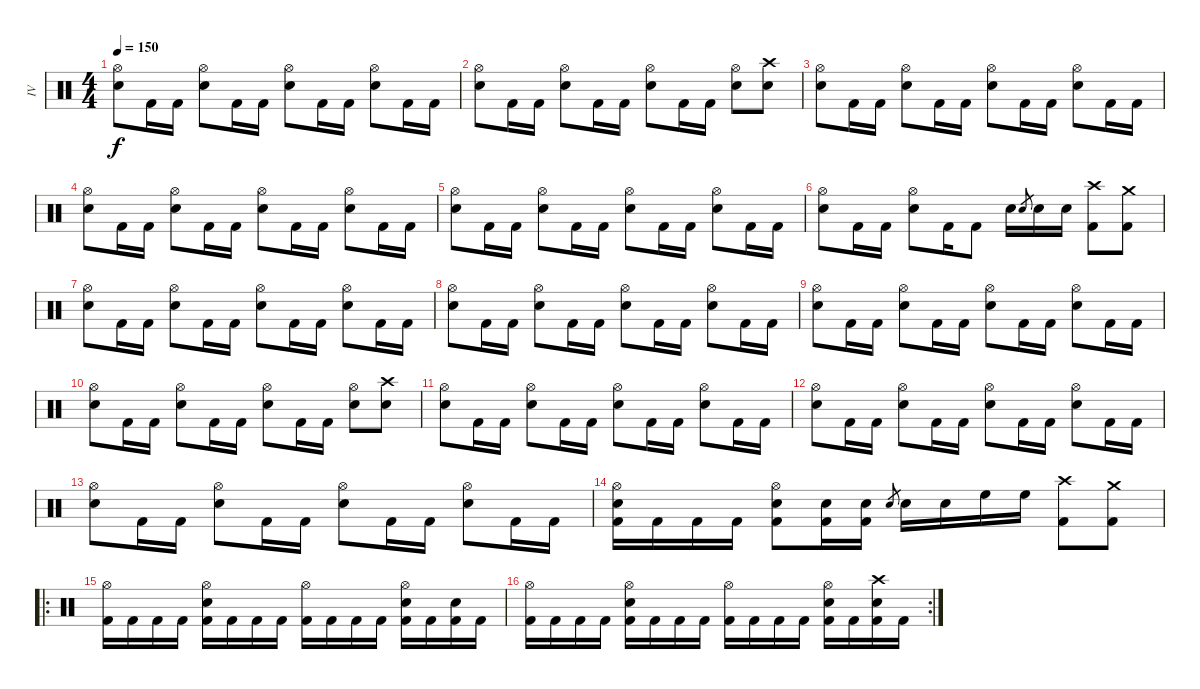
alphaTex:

\track ("IV" "IV") {instrument percussion}
\staff {score}
\articulation defaults
\ts (4 4)
\tempo 150
\clef neutral
\ks c
("Hi-Hat (open)" "Snare (hit) 2").8{dy f} "Kick (hit) 2".16 "Kick (hit) 2".16 ("Hi-Hat (open)" "Snare (hit) 2").8 "Kick (hit) 2".16 "Kick (hit) 2".16 ("Hi-Hat (open)" "Snare (hit) 2").8 "Kick (hit) 2".16 "Kick (hit) 2".16 ("Hi-Hat (open)" "Snare (hit) 2").8 "Kick (hit) 2".16 "Kick (hit) 2".16 |
("Hi-Hat (open)" "Snare (hit) 2").8 "Kick (hit) 2".16 "Kick (hit) 2".16 ("Hi-Hat (open)" "Snare (hit) 2").8 "Kick (hit) 2".16 "Kick (hit) 2".16 ("Hi-Hat (open)" "Snare (hit) 2").8 "Kick (hit) 2".16 "Kick (hit) 2".16 ("Hi-Hat (open)" "Snare (hit) 2").8 ("Crash high (hit)" "Snare (hit) 2").8 |
("Hi-Hat (open)" "Snare (hit) 2").8 "Kick (hit) 2".16 "Kick (hit) 2".16 ("Hi-Hat (open)" "Snare (hit) 2").8 "Kick (hit) 2".16 "Kick (hit) 2".16 ("Hi-Hat (open)" "Snare (hit) 2").8 "Kick (hit) 2".16 "Kick (hit) 2".16 ("Hi-Hat (open)" "Snare (hit) 2").8 "Kick (hit) 2".16 "Kick (hit) 2".16 |
("Hi-Hat (open)" "Snare (hit) 2").8 "Kick (hit) 2".16 "Kick (hit) 2".16 ("Hi-Hat (open)" "Snare (hit) 2").8 "Kick (hit) 2".16 "Kick (hit) 2".16 ("Hi-Hat (open)" "Snare (hit) 2").8 "Kick (hit) 2".16 "Kick (hit) 2".16 ("Hi-Hat (open)" "Snare (hit) 2").8 "Kick (hit) 2".16 "Kick (hit) 2".16 |
("Hi-Hat (open)" "Snare (hit) 2").8 "Kick (hit) 2".16 "Kick (hit) 2".16 ("Hi-Hat (open)" "Snare (hit) 2").8 "Kick (hit) 2".16 "Kick (hit) 2".16 ("Hi-Hat (open)" "Snare (hit) 2").8 "Kick (hit) 2".16 "Kick (hit) 2".16 ("Hi-Hat (open)" "Snare (hit) 2").8 "Kick (hit) 2".16 "Kick (hit) 2".16 |
("Hi-Hat (open)" "Snare (hit) 2").8 "Kick (hit) 2".16 "Kick (hit) 2".16 ("Hi-Hat (open)" "Snare (hit) 2").8 "Kick (hit) 2".16 "Kick (hit) 2".8 "Snare (hit) 2".16 "Snare (hit) 2".8{gr} "Snare (hit) 2".16 "Snare (hit) 2".16 ("Crash high (hit)" "Kick (hit) 2").8 ("Crash medium (hit)" "Kick (hit) 2").8 |
("Hi-Hat (open)" "Snare (hit) 2").8 "Kick (hit) 2".16 "Kick (hit) 2".16 ("Hi-Hat (open)" "Snare (hit) 2").8 "Kick (hit) 2".16 "Kick (hit) 2".16 ("Hi-Hat (open)" "Snare (hit) 2").8 "Kick (hit) 2".16 "Kick (hit) 2".16 ("Hi-Hat (open)" "Snare (hit) 2").8 "Kick (hit) 2".16 "Kick (hit) 2".16 |
("Hi-Hat (open)" "Snare (hit) 2").8 "Kick (hit) 2".16 "Kick (hit) 2".16 ("Hi-Hat (open)" "Snare (hit) 2").8 "Kick (hit) 2".16 "Kick (hit) 2".16 ("Hi-Hat (open)" "Snare (hit) 2").8 "Kick (hit) 2".16 "Kick (hit) 2".16 ("Hi-Hat (open)" "Snare (hit) 2").8 "Kick (hit) 2".16 "Kick (hit) 2".16 |
("Hi-Hat (open)" "Snare (hit) 2").8 "Kick (hit) 2".16 "Kick (hit) 2".16 ("Hi-Hat (open)" "Snare (hit) 2").8 "Kick (hit) 2".16 "Kick (hit) 2".16 ("Hi-Hat (open)" "Snare (hit) 2").8 "Kick (hit) 2".16 "Kick (hit) 2".16 ("Hi-Hat (open)" "Snare (hit) 2").8 "Kick (hit) 2".16 "Kick (hit) 2".16 |
("Hi-Hat (open)" "Snare (hit) 2").8 "Kick (hit) 2".16 "Kick (hit) 2".16 ("Hi-Hat (open)" "Snare (hit) 2").8 "Kick (hit) 2".16 "Kick (hit) 2".16 ("Hi-Hat (open)" "Snare (hit) 2").8 "Kick (hit) 2".16 "Kick (hit) 2".16 ("Hi-Hat (open)" "Snare (hit) 2").8 ("Crash high (hit)" "Snare (hit) 2").8 |
("Hi-Hat (open)" "Snare (hit) 2").8 "Kick (hit) 2".16 "Kick (hit) 2".16 ("Hi-Hat (open)" "Snare (hit) 2").8 "Kick (hit) 2".16 "Kick (hit) 2".16 ("Hi-Hat (open)" "Snare (hit) 2").8 "Kick (hit) 2".16 "Kick (hit) 2".16 ("Hi-Hat (open)" "Snare (hit) 2").8 "Kick (hit) 2".16 "Kick (hit) 2".16 |
("Hi-Hat (open)" "Snare (hit) 2").8 "Kick (hit) 2".16 "Kick (hit) 2".16 ("Hi-Hat (open)" "Snare (hit) 2").8 "Kick (hit) 2".16 "Kick (hit) 2".16 ("Hi-Hat (open)" "Snare (hit) 2").8 "Kick (hit) 2".16 "Kick (hit) 2".16 ("Hi-Hat (open)" "Snare (hit) 2").8 "Kick (hit) 2".16 "Kick (hit) 2".16 |
("Hi-Hat (open)" "Snare (hit) 2").8 "Kick (hit) 2".16 "Kick (hit) 2".16 ("Hi-Hat (open)" "Snare (hit) 2").8 "Kick (hit) 2".16 "Kick (hit) 2".16 ("Hi-Hat (open)" "Snare (hit) 2").8 "Kick (hit) 2".16 "Kick (hit) 2".16 ("Hi-Hat (open)" "Snare (hit) 2").8 "Kick (hit) 2".16 "Kick (hit) 2".16 |
("Hi-Hat (open)" "Snare (hit) 2" "Kick (hit) 2").16 "Kick (hit) 2".16 "Kick (hit) 2".16 "Kick (hit) 2".16 ("Hi-Hat (open)" "Snare (hit) 2" "Kick (hit) 2").8 ("Snare (hit) 2" "Kick (hit) 2").16 ("Snare (hit) 2" "Kick (hit) 2").16 "Snare (hit) 2".8{gr} "Snare (hit) 2".16 "Snare (hit) 2".16 "High Floor Tom (hit)".16 "High Floor Tom (hit)".16 ("Crash high (hit)" "Kick (hit) 2").8 ("Crash medium (hit)" "Kick (hit) 2").8 |
\ro
("Hi-Hat (open)" "Kick (hit) 2").16 "Kick (hit) 2".16 "Kick (hit) 2".16 "Kick (hit) 2".16 ("Hi-Hat (open)" "Snare (hit) 2" "Kick (hit) 2").16 "Kick (hit) 2".16 "Kick (hit) 2".16 "Kick (hit) 2".16 ("Hi-Hat (open)" "Kick (hit) 2").16 "Kick (hit) 2".16 "Kick (hit) 2".16 "Kick (hit) 2".16 ("Hi-Hat (open)" "Snare (hit) 2" "Kick (hit) 2").16 "Kick (hit) 2".16 ("Snare (hit) 2" "Kick (hit) 2").16 "Kick (hit) 2".16 |
\rc 2
("Hi-Hat (open)" "Kick (hit) 2").16 "Kick (hit) 2".16 "Kick (hit) 2".16 "Kick (hit) 2".16 ("Hi-Hat (open)" "Snare (hit) 2" "Kick (hit) 2").16 "Kick (hit) 2".16 "Kick (hit) 2".16 "Kick (hit) 2".16 ("Hi-Hat (open)" "Kick (hit) 2").16 "Kick (hit) 2".16 "Kick (hit) 2".16 "Kick (hit) 2".16 ("Hi-Hat (open)" "Snare (hit) 2" "Kick (hit) 2").16 "Kick (hit) 2".16 ("Crash high (hit)" "Snare (hit) 2" "Kick (hit) 2").16 "Kick (hit) 2".16
